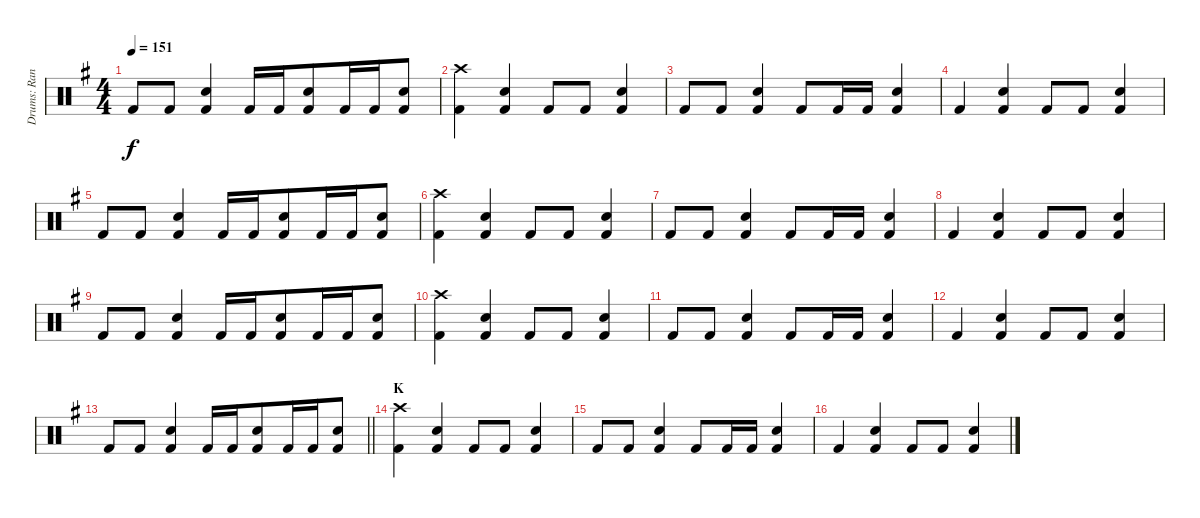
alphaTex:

\track ("Drums: Randy" "Drums: Ran") {instrument percussion}
\staff {score}
\articulation defaults
\ts (4 4)
\tempo 151
\clef neutral
\ks g "Kick (hit) 2".8{dy f} "Kick (hit) 2".8
("Snare (hit) 2" "Kick (hit) 2").4 "Kick (hit) 2".16 "Kick (hit) 2".16 ("Snare (hit) 2" "Kick (hit) 2").8{beam merge} "Kick (hit) 2".16 "Kick (hit) 2".16 ("Snare (hit) 2" "Kick (hit) 2").8 |
("Crash high (hit)" "Kick (hit) 2").4 ("Snare (hit) 2" "Kick (hit) 2").4 "Kick (hit) 2".8 "Kick (hit) 2".8 ("Snare (hit) 2" "Kick (hit) 2").4 |
"Kick (hit) 2".8 "Kick (hit) 2".8 ("Snare (hit) 2" "Kick (hit) 2").4 "Kick (hit) 2".8 "Kick (hit) 2".16 "Kick (hit) 2".16 ("Snare (hit) 2" "Kick (hit) 2").4 |
"Kick (hit) 2".4 ("Snare (hit) 2" "Kick (hit) 2").4 "Kick (hit) 2".8 "Kick (hit) 2".8 ("Snare (hit) 2" "Kick (hit) 2").4 |
"Kick (hit) 2".8 "Kick (hit) 2".8 ("Snare (hit) 2" "Kick (hit) 2").4 "Kick (hit) 2".16 "Kick (hit) 2".16 ("Snare (hit) 2" "Kick (hit) 2").8{beam merge} "Kick (hit) 2".16 "Kick (hit) 2".16 ("Snare (hit) 2" "Kick (hit) 2").8 |
("Crash high (hit)" "Kick (hit) 2").4 ("Snare (hit) 2" "Kick (hit) 2").4 "Kick (hit) 2".8 "Kick (hit) 2".8 ("Snare (hit) 2" "Kick (hit) 2").4 |
"Kick (hit) 2".8 "Kick (hit) 2".8 ("Snare (hit) 2" "Kick (hit) 2").4 "Kick (hit) 2".8 "Kick (hit) 2".16 "Kick (hit) 2".16 ("Snare (hit) 2" "Kick (hit) 2").4 |
"Kick (hit) 2".4 ("Snare (hit) 2" "Kick (hit) 2").4 "Kick (hit) 2".8 "Kick (hit) 2".8 ("Snare (hit) 2" "Kick (hit) 2").4 |
"Kick (hit) 2".8 "Kick (hit) 2".8 ("Snare (hit) 2" "Kick (hit) 2").4 "Kick (hit) 2".16 "Kick (hit) 2".16 ("Snare (hit) 2" "Kick (hit) 2").8{beam merge} "Kick (hit) 2".16 "Kick (hit) 2".16 ("Snare (hit) 2" "Kick (hit) 2").8 |
("Crash high (hit)" "Kick (hit) 2").4 ("Snare (hit) 2" "Kick (hit) 2").4 "Kick (hit) 2".8 "Kick (hit) 2".8 ("Snare (hit) 2" "Kick (hit) 2").4 |
"Kick (hit) 2".8 "Kick (hit) 2".8 ("Snare (hit) 2" "Kick (hit) 2").4 "Kick (hit) 2".8 "Kick (hit) 2".16 "Kick (hit) 2".16 ("Snare (hit) 2" "Kick (hit) 2").4 |
"Kick (hit) 2".4 ("Snare (hit) 2" "Kick (hit) 2").4 "Kick (hit) 2".8 "Kick (hit) 2".8 ("Snare (hit) 2" "Kick (hit) 2").4 |
\barLineRight lightlight "Kick (hit) 2".8 "Kick (hit) 2".8
("Snare (hit) 2" "Kick (hit) 2").4 "Kick (hit) 2".16 "Kick (hit) 2".16 ("Snare (hit) 2" "Kick (hit) 2").8{beam merge} "Kick (hit) 2".16 "Kick (hit) 2".16 ("Snare (hit) 2" "Kick (hit) 2").8 |
\section ("" "K")
("Crash high (hit)" "Kick (hit) 2").4 ("Snare (hit) 2" "Kick (hit) 2").4 "Kick (hit) 2".8 "Kick (hit) 2".8 ("Snare (hit) 2" "Kick (hit) 2").4 |
"Kick (hit) 2".8 "Kick (hit) 2".8 ("Snare (hit) 2" "Kick (hit) 2").4 "Kick (hit) 2".8 "Kick (hit) 2".16 "Kick (hit) 2".16 ("Snare (hit) 2" "Kick (hit) 2").4 |
"Kick (hit) 2".4 ("Snare (hit) 2" "Kick (hit) 2").4 "Kick (hit) 2".8 "Kick (hit) 2".8 ("Snare (hit) 2" "Kick (hit) 2").4
